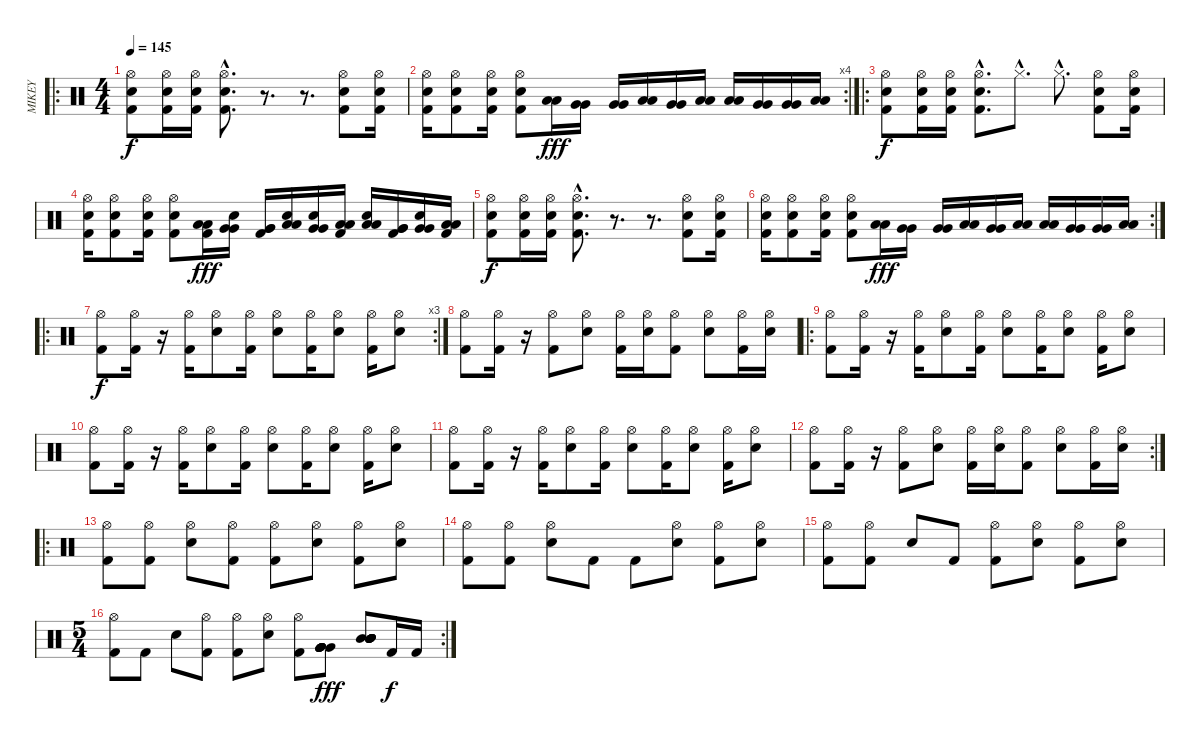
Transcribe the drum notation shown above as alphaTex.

\track ("MIKEY" "MIKEY") {instrument percussion}
\staff {score}
\articulation defaults
\ro
\ts (4 4)
\tempo 145
\clef neutral
\ks c
("Hi-Hat (open)" "Electric Snare (hit)" "Kick (hit) 2").8{dy f} ("Hi-Hat (open)" "Electric Snare (hit)" "Kick (hit) 2").16 ("Hi-Hat (open)" "Electric Snare (hit)" "Kick (hit) 2").16 ("Hi-Hat (open)"{hac} "Electric Snare (hit)"{hac} "Kick (hit) 2"{hac}).8{d} r.8{d} r.8{d} ("Hi-Hat (open)" "Electric Snare (hit)" "Kick (hit) 2").8 ("Hi-Hat (open)" "Electric Snare (hit)" "Kick (hit) 2").16 |
\rc 4
("Hi-Hat (open)" "Electric Snare (hit)" "Kick (hit) 2").16 ("Hi-Hat (open)" "Electric Snare (hit)" "Kick (hit) 2").8 ("Hi-Hat (open)" "Electric Snare (hit)" "Kick (hit) 2").16 ("Hi-Hat (open)" "Electric Snare (hit)" "Kick (hit) 2").8 ("Low Tom (hit)" "Low Tom (hit)").16{dy fff} ("Very Low Tom (hit)" "Very Low Tom (hit)").16 ("Very Low Tom (hit)" "Very Low Tom (hit)").16 ("Low Tom (hit)" "Low Tom (hit)").16 ("Very Low Tom (hit)" "Very Low Tom (hit)").16 ("Low Floor Tom (hit)" "Low Floor Tom (hit)").16 ("Low Floor Tom (hit)" "Low Floor Tom (hit)").16 ("Very Low Tom (hit)" "Very Low Tom (hit)").16 ("Very Low Tom (hit)" "Very Low Tom (hit)").16 ("Low Floor Tom (hit)" "Low Floor Tom (hit)").16 |
\ro
("Hi-Hat (open)" "Electric Snare (hit)" "Kick (hit) 2").8{dy f} ("Hi-Hat (open)" "Electric Snare (hit)" "Kick (hit) 2").16 ("Hi-Hat (open)" "Electric Snare (hit)" "Kick (hit) 2").16 ("Hi-Hat (open)"{hac} "Electric Snare (hit)"{hac} "Kick (hit) 2"{hac}).8{d} "Hi-Hat (closed)"{hac}.8{d} "Hi-Hat (closed)"{hac}.8{d} ("Hi-Hat (open)" "Electric Snare (hit)" "Kick (hit) 2").8 ("Hi-Hat (open)" "Electric Snare (hit)" "Kick (hit) 2").16 |
("Hi-Hat (open)" "Electric Snare (hit)" "Kick (hit) 2").16 ("Hi-Hat (open)" "Electric Snare (hit)" "Kick (hit) 2").8 ("Hi-Hat (open)" "Electric Snare (hit)" "Kick (hit) 2").16 ("Hi-Hat (open)" "Electric Snare (hit)" "Kick (hit) 2").8 ("Kick (hit) 2" "Low Tom (hit)" "Low Tom (hit)").16{dy fff} ("Electric Snare (hit)" "Very Low Tom (hit)" "Very Low Tom (hit)").16 ("Kick (hit) 2" "Very Low Tom (hit)" "Very Low Tom (hit)").16 ("Electric Snare (hit)" "Low Tom (hit)" "Low Tom (hit)").16 ("Electric Snare (hit)" "Very Low Tom (hit)" "Very Low Tom (hit)").16 ("Kick (hit) 2" "Low Floor Tom (hit)" "Low Floor Tom (hit)").16 ("Electric Snare (hit)" "Low Floor Tom (hit)" "Low Floor Tom (hit)").16 ("Kick (hit) 2" "Very Low Tom (hit)" "Very Low Tom (hit)").16 ("Electric Snare (hit)" "Very Low Tom (hit)" "Very Low Tom (hit)").16 ("Kick (hit) 2" "Low Floor Tom (hit)" "Low Floor Tom (hit)").16 |
("Hi-Hat (open)" "Electric Snare (hit)" "Kick (hit) 2").8{dy f} ("Hi-Hat (open)" "Electric Snare (hit)" "Kick (hit) 2").16 ("Hi-Hat (open)" "Electric Snare (hit)" "Kick (hit) 2").16 ("Hi-Hat (open)"{hac} "Electric Snare (hit)"{hac} "Kick (hit) 2"{hac}).8{d} r.8{d} r.8{d} ("Hi-Hat (open)" "Electric Snare (hit)" "Kick (hit) 2").8 ("Hi-Hat (open)" "Electric Snare (hit)" "Kick (hit) 2").16 |
\rc 2
("Hi-Hat (open)" "Electric Snare (hit)" "Kick (hit) 2").16 ("Hi-Hat (open)" "Electric Snare (hit)" "Kick (hit) 2").8 ("Hi-Hat (open)" "Electric Snare (hit)" "Kick (hit) 2").16 ("Hi-Hat (open)" "Electric Snare (hit)" "Kick (hit) 2").8 ("Low Tom (hit)" "Low Tom (hit)").16{dy fff} ("Very Low Tom (hit)" "Very Low Tom (hit)").16 ("Very Low Tom (hit)" "Very Low Tom (hit)").16 ("Low Tom (hit)" "Low Tom (hit)").16 ("Very Low Tom (hit)" "Very Low Tom (hit)").16 ("Low Floor Tom (hit)" "Low Floor Tom (hit)").16 ("Low Floor Tom (hit)" "Low Floor Tom (hit)").16 ("Very Low Tom (hit)" "Very Low Tom (hit)").16 ("Very Low Tom (hit)" "Very Low Tom (hit)").16 ("Low Floor Tom (hit)" "Low Floor Tom (hit)").16 |
\ro
\rc 3
("Hi-Hat (open)" "Kick (hit) 2").8{dy f} ("Hi-Hat (open)" "Kick (hit) 2").16 r.16 ("Hi-Hat (open)" "Kick (hit) 2").16 ("Hi-Hat (open)" "Electric Snare (hit)").8 ("Hi-Hat (open)" "Kick (hit) 2").16 ("Hi-Hat (open)" "Electric Snare (hit)").8 ("Hi-Hat (open)" "Kick (hit) 2").16 ("Hi-Hat (open)" "Electric Snare (hit)").8 ("Hi-Hat (open)" "Kick (hit) 2").16 ("Hi-Hat (open)" "Electric Snare (hit)").8 |
("Hi-Hat (open)" "Kick (hit) 2").8 ("Hi-Hat (open)" "Kick (hit) 2").16 r.16 ("Hi-Hat (open)" "Kick (hit) 2").8 ("Hi-Hat (open)" "Electric Snare (hit)").8 ("Hi-Hat (open)" "Kick (hit) 2").16 ("Hi-Hat (open)" "Electric Snare (hit)").16 ("Hi-Hat (open)" "Kick (hit) 2").8 ("Hi-Hat (open)" "Electric Snare (hit)").8 ("Hi-Hat (open)" "Kick (hit) 2").16 ("Hi-Hat (open)" "Electric Snare (hit)").16 |
\ro
("Hi-Hat (open)" "Kick (hit) 2").8 ("Hi-Hat (open)" "Kick (hit) 2").16 r.16 ("Hi-Hat (open)" "Kick (hit) 2").16 ("Hi-Hat (open)" "Electric Snare (hit)").8 ("Hi-Hat (open)" "Kick (hit) 2").16 ("Hi-Hat (open)" "Electric Snare (hit)").8 ("Hi-Hat (open)" "Kick (hit) 2").16 ("Hi-Hat (open)" "Electric Snare (hit)").8 ("Hi-Hat (open)" "Kick (hit) 2").16 ("Hi-Hat (open)" "Electric Snare (hit)").8 |
("Hi-Hat (open)" "Kick (hit) 2").8 ("Hi-Hat (open)" "Kick (hit) 2").16 r.16 ("Hi-Hat (open)" "Kick (hit) 2").16 ("Hi-Hat (open)" "Electric Snare (hit)").8 ("Hi-Hat (open)" "Kick (hit) 2").16 ("Hi-Hat (open)" "Electric Snare (hit)").8 ("Hi-Hat (open)" "Kick (hit) 2").16 ("Hi-Hat (open)" "Electric Snare (hit)").8 ("Hi-Hat (open)" "Kick (hit) 2").16 ("Hi-Hat (open)" "Electric Snare (hit)").8 |
("Hi-Hat (open)" "Kick (hit) 2").8 ("Hi-Hat (open)" "Kick (hit) 2").16 r.16 ("Hi-Hat (open)" "Kick (hit) 2").16 ("Hi-Hat (open)" "Electric Snare (hit)").8 ("Hi-Hat (open)" "Kick (hit) 2").16 ("Hi-Hat (open)" "Electric Snare (hit)").8 ("Hi-Hat (open)" "Kick (hit) 2").16 ("Hi-Hat (open)" "Electric Snare (hit)").8 ("Hi-Hat (open)" "Kick (hit) 2").16 ("Hi-Hat (open)" "Electric Snare (hit)").8 |
\rc 2
("Hi-Hat (open)" "Kick (hit) 2").8 ("Hi-Hat (open)" "Kick (hit) 2").16 r.16 ("Hi-Hat (open)" "Kick (hit) 2").8 ("Hi-Hat (open)" "Electric Snare (hit)").8 ("Hi-Hat (open)" "Kick (hit) 2").16 ("Hi-Hat (open)" "Electric Snare (hit)").16 ("Hi-Hat (open)" "Kick (hit) 2").8 ("Hi-Hat (open)" "Electric Snare (hit)").8 ("Hi-Hat (open)" "Kick (hit) 2").16 ("Hi-Hat (open)" "Electric Snare (hit)").16 |
\ro
("Hi-Hat (open)" "Kick (hit) 2").8 ("Hi-Hat (open)" "Kick (hit) 2").8 ("Hi-Hat (open)" "Electric Snare (hit)").8 ("Hi-Hat (open)" "Kick (hit) 2").8 ("Hi-Hat (open)" "Kick (hit) 2").8 ("Hi-Hat (open)" "Electric Snare (hit)").8 ("Hi-Hat (open)" "Kick (hit) 2").8 ("Hi-Hat (open)" "Electric Snare (hit)").8 |
("Hi-Hat (open)" "Kick (hit) 2").8 ("Hi-Hat (open)" "Kick (hit) 2").8 ("Hi-Hat (open)" "Electric Snare (hit)").8 "Kick (hit) 2".8 "Kick (hit) 2".8 ("Hi-Hat (open)" "Electric Snare (hit)").8 ("Hi-Hat (open)" "Kick (hit) 2").8 ("Hi-Hat (open)" "Electric Snare (hit)").8 |
("Hi-Hat (open)" "Kick (hit) 2").8 ("Hi-Hat (open)" "Kick (hit) 2").8 "Electric Snare (hit)".8 "Kick (hit) 2".8 ("Hi-Hat (open)" "Kick (hit) 2").8 ("Hi-Hat (open)" "Electric Snare (hit)").8 ("Hi-Hat (open)" "Kick (hit) 2").8 ("Hi-Hat (open)" "Electric Snare (hit)").8 |
\rc 2
\ts (5 4)
("Hi-Hat (open)" "Kick (hit) 2").8 "Kick (hit) 2".8 "Electric Snare (hit)".8 ("Hi-Hat (open)" "Kick (hit) 2").8 ("Hi-Hat (open)" "Kick (hit) 2").8 ("Hi-Hat (open)" "Electric Snare (hit)").8 ("Hi-Hat (open)" "Kick (hit) 2").8 ("Very Low Tom (hit)" "Very Low Tom (hit)" "Very Low Tom (hit)" "Very Low Tom (hit)" "Very Low Tom (hit)" "Very Low Tom (hit)").8{dy fff} ("Mid Tom (hit)" "Mid Tom (hit)" "Mid Tom (hit)" "Mid Tom (hit)" "Mid Tom (hit)" "Mid Tom (hit)").8 "Kick (hit) 2".16{dy f} "Kick (hit) 2".16
